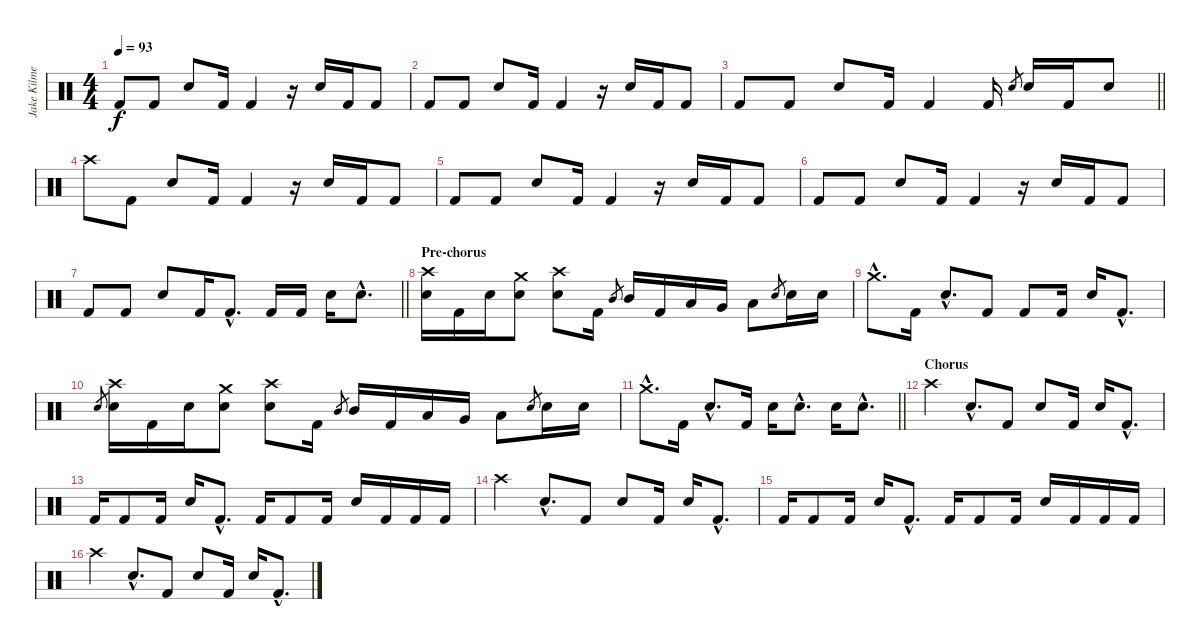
\track ("Jake Kilmer (Drums)" "Jake Kilme") {instrument percussion}
\staff {score}
\articulation defaults
\ts (4 4)
\tempo 93
\clef neutral
\ks c "Kick (hit) 2".8{dy f} "Kick (hit) 2".8 "Electric Snare (hit)".8 "Kick (hit) 2".16 "Kick (hit) 2".4
r.16 "Electric Snare (hit)".16 "Kick (hit) 2".16 "Kick (hit) 2".8 |
"Kick (hit) 2".8 "Kick (hit) 2".8 "Electric Snare (hit)".8 "Kick (hit) 2".16 "Kick (hit) 2".4 r.16 "Electric Snare (hit)".16 "Kick (hit) 2".16 "Kick (hit) 2".8 |
\barLineRight lightlight "Kick (hit) 2".8 "Kick (hit) 2".8 "Electric Snare (hit)".8 "Kick (hit) 2".16 "Kick (hit) 2".4 "Kick (hit) 2".16 "Electric Snare (hit)".8{gr} "Electric Snare (hit)".16 "Kick (hit) 2".16 "Electric Snare (hit)".8
|
"Crash high (hit)".8 "Kick (hit) 2".8 "Electric Snare (hit)".8 "Kick (hit) 2".16 "Kick (hit) 2".4 r.16 "Electric Snare (hit)".16 "Kick (hit) 2".16 "Kick (hit) 2".8 |
"Kick (hit) 2".8 "Kick (hit) 2".8 "Electric Snare (hit)".8 "Kick (hit) 2".16 "Kick (hit) 2".4 r.16 "Electric Snare (hit)".16 "Kick (hit) 2".16 "Kick (hit) 2".8 |
"Kick (hit) 2".8 "Kick (hit) 2".8 "Electric Snare (hit)".8 "Kick (hit) 2".16 "Kick (hit) 2".4 r.16 "Electric Snare (hit)".16 "Kick (hit) 2".16 "Kick (hit) 2".8 |
\barLineRight lightlight "Kick (hit) 2".8 "Kick (hit) 2".8 "Electric Snare (hit)".8 "Kick (hit) 2".16 "Kick (hit) 2"{hac}.8{d} "Kick (hit) 2".16 "Kick (hit) 2".16 "Electric Snare (hit)".16 "Electric Snare (hit)"{hac}.8{d}
|
\section ("" "Pre-chorus")
("Crash high (hit)" "Electric Snare (hit)").16 "Kick (hit) 2".16 "Electric Snare (hit)".16 ("Crash medium (hit)" "Electric Snare (hit)").8 ("Crash high (hit)" "Electric Snare (hit)").8 "Kick (hit) 2".16 "Mid Tom (hit)".8{gr} "Mid Tom (hit)".16 "Kick (hit) 2".16 "Low Tom (hit)".16 "Very Low Tom (hit)".16 "Low Floor Tom (hit)".8 "Electric Snare (hit)".8{gr} "Electric Snare (hit)".16 "Electric Snare (hit)".16 |
"Crash medium (hit)"{hac}.8{d} "Kick (hit) 2".16 "Electric Snare (hit)"{hac}.8{d} "Kick (hit) 2".8 "Kick (hit) 2".8 "Kick (hit) 2".16 "Electric Snare (hit)".16 "Kick (hit) 2"{hac}.8{d} |
"Electric Snare (hit)".8{gr} ("Crash high (hit)" "Electric Snare (hit)").16 "Kick (hit) 2".16 "Electric Snare (hit)".16 ("Crash medium (hit)" "Electric Snare (hit)").8 ("Crash high (hit)" "Electric Snare (hit)").8 "Kick (hit) 2".16 "Mid Tom (hit)".8{gr} "Mid Tom (hit)".16 "Kick (hit) 2".16 "Low Tom (hit)".16 "Very Low Tom (hit)".16 "Low Floor Tom (hit)".8 "Electric Snare (hit)".8{gr} "Electric Snare (hit)".16 "Electric Snare (hit)".16 |
\barLineRight lightlight "Crash medium (hit)"{hac}.8{d} "Kick (hit) 2".16 "Electric Snare (hit)"{hac}.8{d} "Kick (hit) 2".16 "Electric Snare (hit)".16 "Electric Snare (hit)"{hac}.8{d} "Electric Snare (hit)".16 "Electric Snare (hit)"{hac}.8{d}
|
\section ("" "Chorus")
"Crash high (hit)".4 "Electric Snare (hit)"{hac}.8{d} "Kick (hit) 2".8 "Electric Snare (hit)".8 "Kick (hit) 2".16 "Electric Snare (hit)".16 "Kick (hit) 2"{hac}.8{d} |
"Kick (hit) 2".16 "Kick (hit) 2".8 "Kick (hit) 2".16 "Electric Snare (hit)".16 "Kick (hit) 2"{hac}.8{d} "Kick (hit) 2".16 "Kick (hit) 2".8 "Kick (hit) 2".16 "Electric Snare (hit)".16 "Kick (hit) 2".16 "Kick (hit) 2".16 "Kick (hit) 2".16 |
"Crash high (hit)".4 "Electric Snare (hit)"{hac}.8{d} "Kick (hit) 2".8 "Electric Snare (hit)".8 "Kick (hit) 2".16 "Electric Snare (hit)".16 "Kick (hit) 2"{hac}.8{d} |
"Kick (hit) 2".16 "Kick (hit) 2".8 "Kick (hit) 2".16 "Electric Snare (hit)".16 "Kick (hit) 2"{hac}.8{d} "Kick (hit) 2".16 "Kick (hit) 2".8 "Kick (hit) 2".16 "Electric Snare (hit)".16 "Kick (hit) 2".16 "Kick (hit) 2".16 "Kick (hit) 2".16 |
"Crash high (hit)".4 "Electric Snare (hit)"{hac}.8{d} "Kick (hit) 2".8 "Electric Snare (hit)".8 "Kick (hit) 2".16 "Electric Snare (hit)".16 "Kick (hit) 2"{hac}.8{d}
